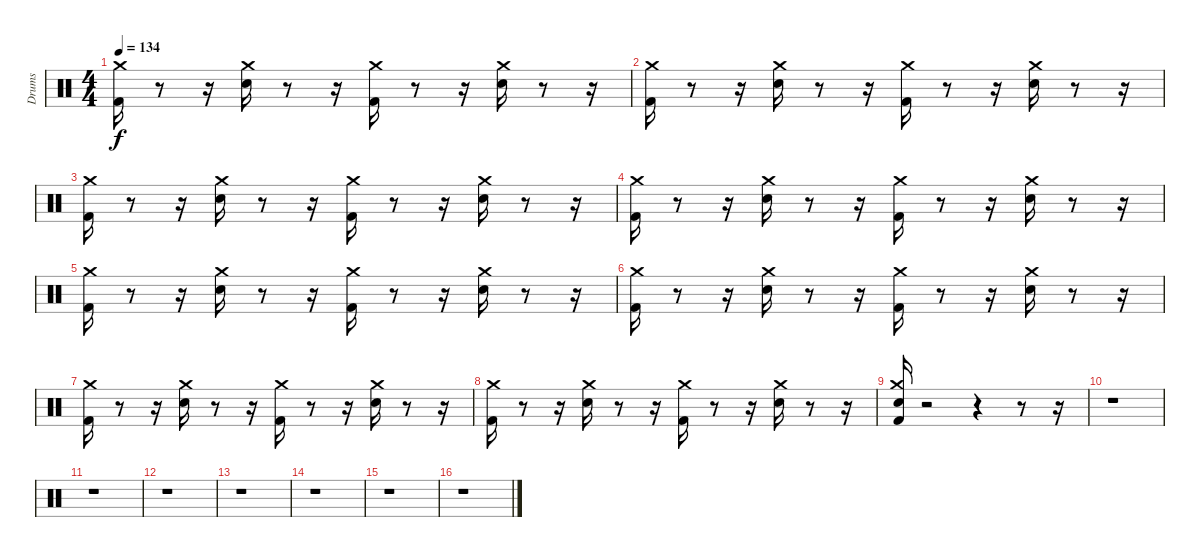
\track ("Drums               " "Drums     ") {instrument percussion}
\staff {score}
\articulation defaults
\ts (4 4)
\tempo 134
\clef neutral
\ks c
("Kick (hit) 2" "Crash medium (hit)").16{dy f} r.8 r.16 ("Snare (hit) 2" "Crash medium (hit)").16 r.8 r.16 ("Kick (hit) 2" "Crash medium (hit)").16 r.8 r.16 ("Snare (hit) 2" "Crash medium (hit)").16 r.8 r.16 |
("Kick (hit) 2" "Crash medium (hit)").16 r.8 r.16 ("Snare (hit) 2" "Crash medium (hit)").16 r.8 r.16 ("Kick (hit) 2" "Crash medium (hit)").16 r.8 r.16 ("Snare (hit) 2" "Crash medium (hit)").16 r.8 r.16 |
("Kick (hit) 2" "Crash medium (hit)").16 r.8 r.16 ("Snare (hit) 2" "Crash medium (hit)").16 r.8 r.16 ("Kick (hit) 2" "Crash medium (hit)").16 r.8 r.16 ("Snare (hit) 2" "Crash medium (hit)").16 r.8 r.16 |
("Kick (hit) 2" "Crash medium (hit)").16 r.8 r.16 ("Snare (hit) 2" "Crash medium (hit)").16 r.8 r.16 ("Kick (hit) 2" "Crash medium (hit)").16 r.8 r.16 ("Snare (hit) 2" "Crash medium (hit)").16 r.8 r.16 |
("Kick (hit) 2" "Crash medium (hit)").16 r.8 r.16 ("Snare (hit) 2" "Crash medium (hit)").16 r.8 r.16 ("Kick (hit) 2" "Crash medium (hit)").16 r.8 r.16 ("Snare (hit) 2" "Crash medium (hit)").16 r.8 r.16 |
("Kick (hit) 2" "Crash medium (hit)").16 r.8 r.16 ("Snare (hit) 2" "Crash medium (hit)").16 r.8 r.16 ("Kick (hit) 2" "Crash medium (hit)").16 r.8 r.16 ("Snare (hit) 2" "Crash medium (hit)").16 r.8 r.16 |
("Kick (hit) 2" "Crash medium (hit)").16 r.8 r.16 ("Snare (hit) 2" "Crash medium (hit)").16 r.8 r.16 ("Kick (hit) 2" "Crash medium (hit)").16 r.8 r.16 ("Snare (hit) 2" "Crash medium (hit)").16 r.8 r.16 |
("Kick (hit) 2" "Crash medium (hit)").16 r.8 r.16 ("Snare (hit) 2" "Crash medium (hit)").16 r.8 r.16 ("Kick (hit) 2" "Crash medium (hit)").16 r.8 r.16 ("Snare (hit) 2" "Crash medium (hit)").16 r.8 r.16 |
("Kick (hit) 2" "Snare (hit) 2" "Crash medium (hit)").16 r.2 r.4 r.8 r.16 |
r.1 |
r.1 |
r.1 |
r.1 |
r.1 |
r.1 |
r.1
